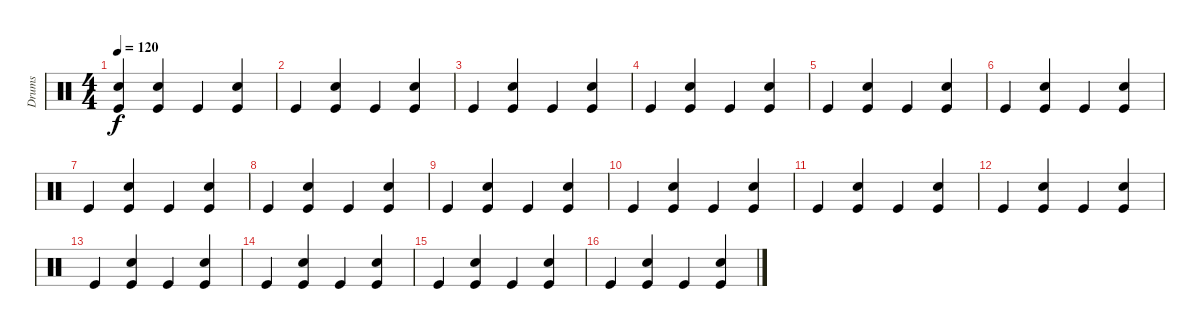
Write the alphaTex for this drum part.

\track ("Drums" "Drums") {instrument percussion}
\staff {score}
\articulation defaults
\ts (4 4)
\tempo 120
\clef neutral
\ks c
("Snare (hit) 2" "Kick (hit)").4{dy f} ("Snare (hit) 2" "Kick (hit)").4 "Kick (hit)".4 ("Snare (hit) 2" "Kick (hit)").4 |
"Kick (hit)".4 ("Snare (hit) 2" "Kick (hit)").4 "Kick (hit)".4 ("Snare (hit) 2" "Kick (hit)").4 |
"Kick (hit)".4 ("Snare (hit) 2" "Kick (hit)").4 "Kick (hit)".4 ("Snare (hit) 2" "Kick (hit)").4 |
"Kick (hit)".4 ("Snare (hit) 2" "Kick (hit)").4 "Kick (hit)".4 ("Snare (hit) 2" "Kick (hit)").4 |
"Kick (hit)".4 ("Snare (hit) 2" "Kick (hit)").4 "Kick (hit)".4 ("Snare (hit) 2" "Kick (hit)").4 |
"Kick (hit)".4 ("Snare (hit) 2" "Kick (hit)").4 "Kick (hit)".4 ("Snare (hit) 2" "Kick (hit)").4 |
"Kick (hit)".4 ("Snare (hit) 2" "Kick (hit)").4 "Kick (hit)".4 ("Snare (hit) 2" "Kick (hit)").4 |
"Kick (hit)".4 ("Snare (hit) 2" "Kick (hit)").4 "Kick (hit)".4 ("Snare (hit) 2" "Kick (hit)").4 |
"Kick (hit)".4 ("Snare (hit) 2" "Kick (hit)").4 "Kick (hit)".4 ("Snare (hit) 2" "Kick (hit)").4 |
"Kick (hit)".4 ("Snare (hit) 2" "Kick (hit)").4 "Kick (hit)".4 ("Snare (hit) 2" "Kick (hit)").4 |
"Kick (hit)".4 ("Snare (hit) 2" "Kick (hit)").4 "Kick (hit)".4 ("Snare (hit) 2" "Kick (hit)").4 |
"Kick (hit)".4 ("Snare (hit) 2" "Kick (hit)").4 "Kick (hit)".4 ("Snare (hit) 2" "Kick (hit)").4 |
"Kick (hit)".4 ("Snare (hit) 2" "Kick (hit)").4 "Kick (hit)".4 ("Snare (hit) 2" "Kick (hit)").4 |
"Kick (hit)".4 ("Snare (hit) 2" "Kick (hit)").4 "Kick (hit)".4 ("Snare (hit) 2" "Kick (hit)").4 |
"Kick (hit)".4 ("Snare (hit) 2" "Kick (hit)").4 "Kick (hit)".4 ("Snare (hit) 2" "Kick (hit)").4 |
"Kick (hit)".4 ("Snare (hit) 2" "Kick (hit)").4 "Kick (hit)".4 ("Snare (hit) 2" "Kick (hit)").4
